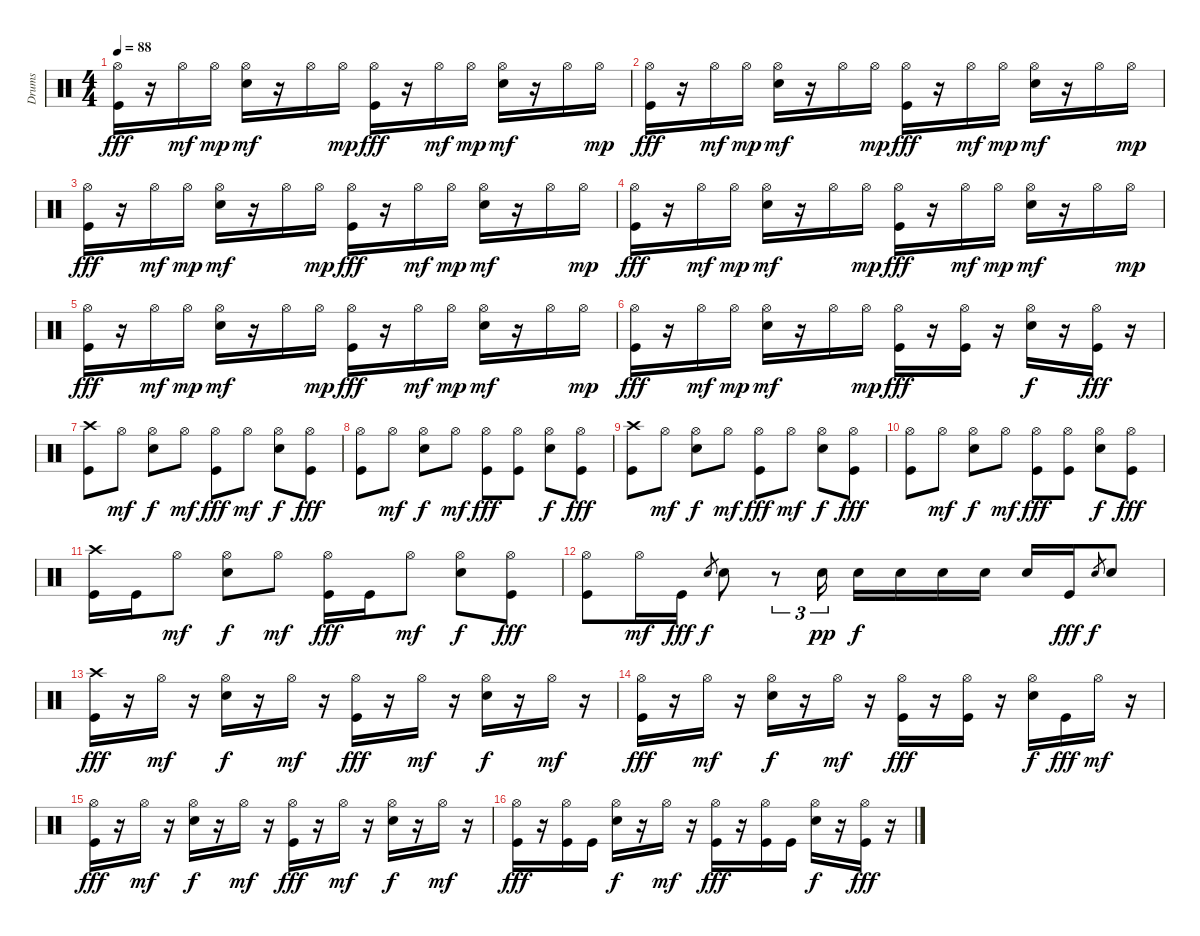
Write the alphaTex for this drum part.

\track ("Drums" "Drums") {instrument percussion}
\staff {score}
\articulation defaults
\ts (4 4)
\tempo 88
\clef neutral
\ks c
("Hi-Hat (open)" "Kick (hit)").16{dy fff} r.16 "Hi-Hat (open)".16{dy mf} "Hi-Hat (open)".16{dy mp} ("Hi-Hat (open)" "Snare (hit) 2").16{dy mf} r.16 "Hi-Hat (open)".16 "Hi-Hat (open)".16{dy mp} ("Hi-Hat (open)" "Kick (hit)").16{dy fff} r.16 "Hi-Hat (open)".16{dy mf} "Hi-Hat (open)".16{dy mp} ("Hi-Hat (open)" "Snare (hit) 2").16{dy mf} r.16 "Hi-Hat (open)".16 "Hi-Hat (open)".16{dy mp} |
("Hi-Hat (open)" "Kick (hit)").16{dy fff} r.16 "Hi-Hat (open)".16{dy mf} "Hi-Hat (open)".16{dy mp} ("Hi-Hat (open)" "Snare (hit) 2").16{dy mf} r.16 "Hi-Hat (open)".16 "Hi-Hat (open)".16{dy mp} ("Hi-Hat (open)" "Kick (hit)").16{dy fff} r.16 "Hi-Hat (open)".16{dy mf} "Hi-Hat (open)".16{dy mp} ("Hi-Hat (open)" "Snare (hit) 2").16{dy mf} r.16 "Hi-Hat (open)".16 "Hi-Hat (open)".16{dy mp} |
("Hi-Hat (open)" "Kick (hit)").16{dy fff} r.16 "Hi-Hat (open)".16{dy mf} "Hi-Hat (open)".16{dy mp} ("Hi-Hat (open)" "Snare (hit) 2").16{dy mf} r.16 "Hi-Hat (open)".16 "Hi-Hat (open)".16{dy mp} ("Hi-Hat (open)" "Kick (hit)").16{dy fff} r.16 "Hi-Hat (open)".16{dy mf} "Hi-Hat (open)".16{dy mp} ("Hi-Hat (open)" "Snare (hit) 2").16{dy mf} r.16 "Hi-Hat (open)".16 "Hi-Hat (open)".16{dy mp} |
("Hi-Hat (open)" "Kick (hit)").16{dy fff} r.16 "Hi-Hat (open)".16{dy mf} "Hi-Hat (open)".16{dy mp} ("Hi-Hat (open)" "Snare (hit) 2").16{dy mf} r.16 "Hi-Hat (open)".16 "Hi-Hat (open)".16{dy mp} ("Hi-Hat (open)" "Kick (hit)").16{dy fff} r.16 "Hi-Hat (open)".16{dy mf} "Hi-Hat (open)".16{dy mp} ("Hi-Hat (open)" "Snare (hit) 2").16{dy mf} r.16 "Hi-Hat (open)".16 "Hi-Hat (open)".16{dy mp} |
("Hi-Hat (open)" "Kick (hit)").16{dy fff} r.16 "Hi-Hat (open)".16{dy mf} "Hi-Hat (open)".16{dy mp} ("Hi-Hat (open)" "Snare (hit) 2").16{dy mf} r.16 "Hi-Hat (open)".16 "Hi-Hat (open)".16{dy mp} ("Hi-Hat (open)" "Kick (hit)").16{dy fff} r.16 "Hi-Hat (open)".16{dy mf} "Hi-Hat (open)".16{dy mp} ("Hi-Hat (open)" "Snare (hit) 2").16{dy mf} r.16 "Hi-Hat (open)".16 "Hi-Hat (open)".16{dy mp} |
("Hi-Hat (open)" "Kick (hit)").16{dy fff} r.16 "Hi-Hat (open)".16{dy mf} "Hi-Hat (open)".16{dy mp} ("Hi-Hat (open)" "Snare (hit) 2").16{dy mf} r.16 "Hi-Hat (open)".16 "Hi-Hat (open)".16{dy mp} ("Hi-Hat (open)" "Kick (hit)").16{dy fff} r.16 ("Hi-Hat (open)" "Kick (hit)").16 r.16 ("Hi-Hat (open)" "Snare (hit) 2").16{dy f} r.16 ("Hi-Hat (open)" "Kick (hit)").16{dy fff} r.16 |
("Crash high (hit)" "Kick (hit)").8 "Hi-Hat (open)".8{dy mf} ("Hi-Hat (open)" "Snare (hit) 2").8{dy f} "Hi-Hat (open)".8{dy mf} ("Hi-Hat (open)" "Kick (hit)").8{dy fff} "Hi-Hat (open)".8{dy mf} ("Hi-Hat (open)" "Snare (hit) 2").8{dy f} ("Hi-Hat (open)" "Kick (hit)").8{dy fff} |
("Hi-Hat (open)" "Kick (hit)").8 "Hi-Hat (open)".8{dy mf} ("Hi-Hat (open)" "Snare (hit) 2").8{dy f} "Hi-Hat (open)".8{dy mf} ("Hi-Hat (open)" "Kick (hit)").8{dy fff} ("Hi-Hat (open)" "Kick (hit)").8 ("Hi-Hat (open)" "Snare (hit) 2").8{dy f} ("Hi-Hat (open)" "Kick (hit)").8{dy fff} |
("Crash high (hit)" "Kick (hit)").8 "Hi-Hat (open)".8{dy mf} ("Hi-Hat (open)" "Snare (hit) 2").8{dy f} "Hi-Hat (open)".8{dy mf} ("Hi-Hat (open)" "Kick (hit)").8{dy fff} "Hi-Hat (open)".8{dy mf} ("Hi-Hat (open)" "Snare (hit) 2").8{dy f} ("Hi-Hat (open)" "Kick (hit)").8{dy fff} |
("Hi-Hat (open)" "Kick (hit)").8 "Hi-Hat (open)".8{dy mf} ("Hi-Hat (open)" "Snare (hit) 2").8{dy f} "Hi-Hat (open)".8{dy mf} ("Hi-Hat (open)" "Kick (hit)").8{dy fff} ("Hi-Hat (open)" "Kick (hit)").8 ("Hi-Hat (open)" "Snare (hit) 2").8{dy f} ("Hi-Hat (open)" "Kick (hit)").8{dy fff} |
("Crash high (hit)" "Kick (hit)").16 "Kick (hit)".16 "Hi-Hat (open)".8{dy mf} ("Hi-Hat (open)" "Snare (hit) 2").8{dy f} "Hi-Hat (open)".8{dy mf} ("Hi-Hat (open)" "Kick (hit)").16{dy fff} "Kick (hit)".16 "Hi-Hat (open)".8{dy mf} ("Hi-Hat (open)" "Snare (hit) 2").8{dy f} ("Hi-Hat (open)" "Kick (hit)").8{dy fff} |
("Hi-Hat (open)" "Kick (hit)").8 "Hi-Hat (open)".16{dy mf} "Kick (hit)".16{dy fff} "Snare (hit) 2".8{gr dy f} "Snare (hit) 2".8 r.8{tu (3 2)} "Snare (hit) 2".16{tu (3 2) dy pp} "Snare (hit) 2".16{dy f} "Snare (hit) 2".16 "Snare (hit) 2".16 "Snare (hit) 2".16 "Snare (hit) 2".16 "Kick (hit)".16{dy fff} "Snare (hit) 2".8{gr dy f} "Snare (hit) 2".8 |
("Crash high (hit)" "Kick (hit)").16{dy fff} r.16 "Hi-Hat (open)".16{dy mf} r.16 ("Hi-Hat (open)" "Snare (hit) 2").16{dy f} r.16 "Hi-Hat (open)".16{dy mf} r.16 ("Hi-Hat (open)" "Kick (hit)").16{dy fff} r.16 "Hi-Hat (open)".16{dy mf} r.16 ("Hi-Hat (open)" "Snare (hit) 2").16{dy f} r.16 "Hi-Hat (open)".16{dy mf} r.16 |
("Hi-Hat (open)" "Kick (hit)").16{dy fff} r.16 "Hi-Hat (open)".16{dy mf} r.16 ("Hi-Hat (open)" "Snare (hit) 2").16{dy f} r.16 "Hi-Hat (open)".16{dy mf} r.16 ("Hi-Hat (open)" "Kick (hit)").16{dy fff} r.16 ("Hi-Hat (open)" "Kick (hit)").16 r.16 ("Hi-Hat (open)" "Snare (hit) 2").16{dy f} "Kick (hit)".16{dy fff} "Hi-Hat (open)".16{dy mf} r.16 |
("Hi-Hat (open)" "Kick (hit)").16{dy fff} r.16 "Hi-Hat (open)".16{dy mf} r.16 ("Hi-Hat (open)" "Snare (hit) 2").16{dy f} r.16 "Hi-Hat (open)".16{dy mf} r.16 ("Hi-Hat (open)" "Kick (hit)").16{dy fff} r.16 "Hi-Hat (open)".16{dy mf} r.16 ("Hi-Hat (open)" "Snare (hit) 2").16{dy f} r.16 "Hi-Hat (open)".16{dy mf} r.16 |
("Hi-Hat (open)" "Kick (hit)").16{dy fff} r.16 ("Hi-Hat (open)" "Kick (hit)").16 "Kick (hit)".16 ("Hi-Hat (open)" "Snare (hit) 2").16{dy f} r.16 "Hi-Hat (open)".16{dy mf} r.16 ("Hi-Hat (open)" "Kick (hit)").16{dy fff} r.16 ("Hi-Hat (open)" "Kick (hit)").16 "Kick (hit)".16 ("Hi-Hat (open)" "Snare (hit) 2").16{dy f} r.16 ("Hi-Hat (open)" "Kick (hit)").16{dy fff} r.16
